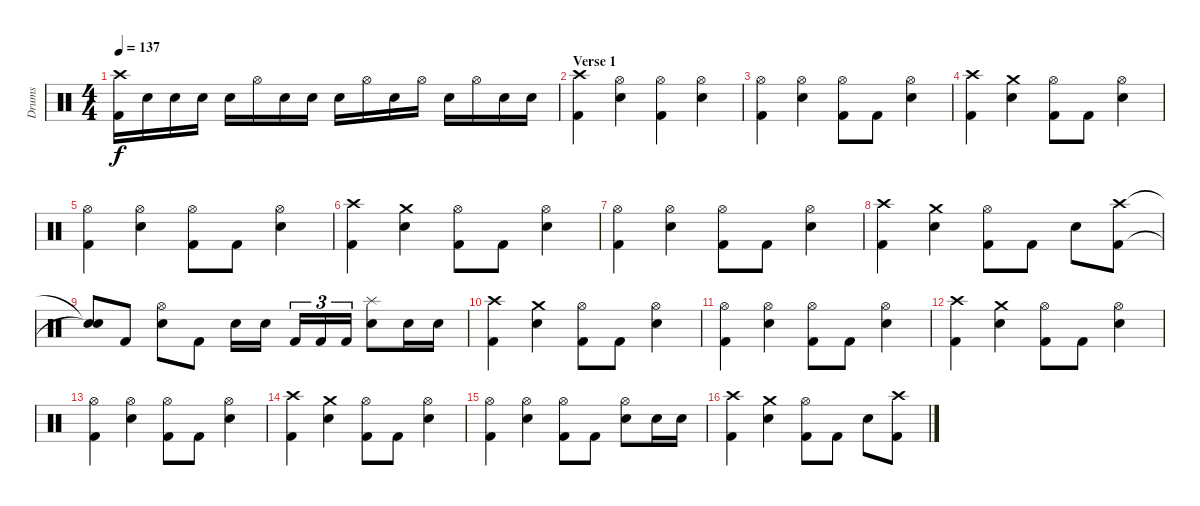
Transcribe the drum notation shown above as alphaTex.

\track ("Drums" "Drums") {instrument percussion}
\staff {score}
\articulation defaults
\ts (4 4)
\tempo 137
\clef neutral
\ks c
("Crash high (hit)" "Kick (hit) 2").16{dy f} "Snare (hit) 2".16 "Snare (hit) 2".16 "Snare (hit) 2".16 "Snare (hit) 2".16 "Hi-Hat (open)".16 "Snare (hit) 2".16 "Snare (hit) 2".16 "Snare (hit) 2".16 "Hi-Hat (open)".16 "Snare (hit) 2".16 "Hi-Hat (open)".16 "Snare (hit) 2".16 "Hi-Hat (open)".16 "Snare (hit) 2".16 "Snare (hit) 2".16 |
\section ("" "Verse 1")
("Crash high (hit)" "Kick (hit) 2").4 ("Hi-Hat (open)" "Snare (hit) 2").4 ("Hi-Hat (open)" "Kick (hit) 2").4 ("Hi-Hat (open)" "Snare (hit) 2").4 |
("Hi-Hat (open)" "Kick (hit) 2").4 ("Hi-Hat (open)" "Snare (hit) 2").4 ("Hi-Hat (open)" "Kick (hit) 2").8 "Kick (hit) 2".8 ("Hi-Hat (open)" "Snare (hit) 2").4 |
("Crash high (hit)" "Kick (hit) 2").4 ("Crash medium (hit)" "Snare (hit) 2").4 ("Hi-Hat (open)" "Kick (hit) 2").8 "Kick (hit) 2".8 ("Hi-Hat (open)" "Snare (hit) 2").4 |
("Hi-Hat (open)" "Kick (hit) 2").4 ("Hi-Hat (open)" "Snare (hit) 2").4 ("Hi-Hat (open)" "Kick (hit) 2").8 "Kick (hit) 2".8 ("Hi-Hat (open)" "Snare (hit) 2").4 |
("Crash high (hit)" "Kick (hit) 2").4 ("Crash medium (hit)" "Snare (hit) 2").4 ("Hi-Hat (open)" "Kick (hit) 2").8 "Kick (hit) 2".8 ("Hi-Hat (open)" "Snare (hit) 2").4 |
("Hi-Hat (open)" "Kick (hit) 2").4 ("Hi-Hat (open)" "Snare (hit) 2").4 ("Hi-Hat (open)" "Kick (hit) 2").8 "Kick (hit) 2".8 ("Hi-Hat (open)" "Snare (hit) 2").4 |
("Crash high (hit)" "Kick (hit) 2").4 ("Crash medium (hit)" "Snare (hit) 2").4 ("Hi-Hat (open)" "Kick (hit) 2").8 "Kick (hit) 2".8 "Snare (hit) 2".8 ("Crash high (hit)" "Kick (hit) 2").8 |
("Snare (hit)"{t} "Snare (hit)"{t}).8 "Kick (hit) 2".8 ("Hi-Hat (open)" "Snare (hit) 2").8 "Kick (hit) 2".8 "Snare (hit) 2".16 "Snare (hit) 2".16 "Kick (hit) 2".16{tu (3 2)} "Kick (hit) 2".16{tu (3 2)} "Kick (hit) 2".16{tu (3 2)} ("Splash (hit)" "Snare (hit) 2").8 "Snare (hit) 2".16 "Snare (hit) 2".16 |
("Crash high (hit)" "Kick (hit) 2").4 ("Crash medium (hit)" "Snare (hit) 2").4 ("Hi-Hat (open)" "Kick (hit) 2").8 "Kick (hit) 2".8 ("Hi-Hat (open)" "Snare (hit) 2").4 |
("Hi-Hat (open)" "Kick (hit) 2").4 ("Hi-Hat (open)" "Snare (hit) 2").4 ("Hi-Hat (open)" "Kick (hit) 2").8 "Kick (hit) 2".8 ("Hi-Hat (open)" "Snare (hit) 2").4 |
("Crash high (hit)" "Kick (hit) 2").4 ("Crash medium (hit)" "Snare (hit) 2").4 ("Hi-Hat (open)" "Kick (hit) 2").8 "Kick (hit) 2".8 ("Hi-Hat (open)" "Snare (hit) 2").4 |
("Hi-Hat (open)" "Kick (hit) 2").4 ("Hi-Hat (open)" "Snare (hit) 2").4 ("Hi-Hat (open)" "Kick (hit) 2").8 "Kick (hit) 2".8 ("Hi-Hat (open)" "Snare (hit) 2").4 |
("Crash high (hit)" "Kick (hit) 2").4 ("Crash medium (hit)" "Snare (hit) 2").4 ("Hi-Hat (open)" "Kick (hit) 2").8 "Kick (hit) 2".8 ("Hi-Hat (open)" "Snare (hit) 2").4 |
("Hi-Hat (open)" "Kick (hit) 2").4 ("Hi-Hat (open)" "Snare (hit) 2").4 ("Hi-Hat (open)" "Kick (hit) 2").8 "Kick (hit) 2".8 ("Hi-Hat (open)" "Snare (hit) 2").8 "Snare (hit) 2".16 "Snare (hit) 2".16 |
("Crash high (hit)" "Kick (hit) 2").4 ("Crash medium (hit)" "Snare (hit) 2").4 ("Hi-Hat (open)" "Kick (hit) 2").8 "Kick (hit) 2".8 "Snare (hit) 2".8 ("Crash high (hit)" "Kick (hit) 2").8
